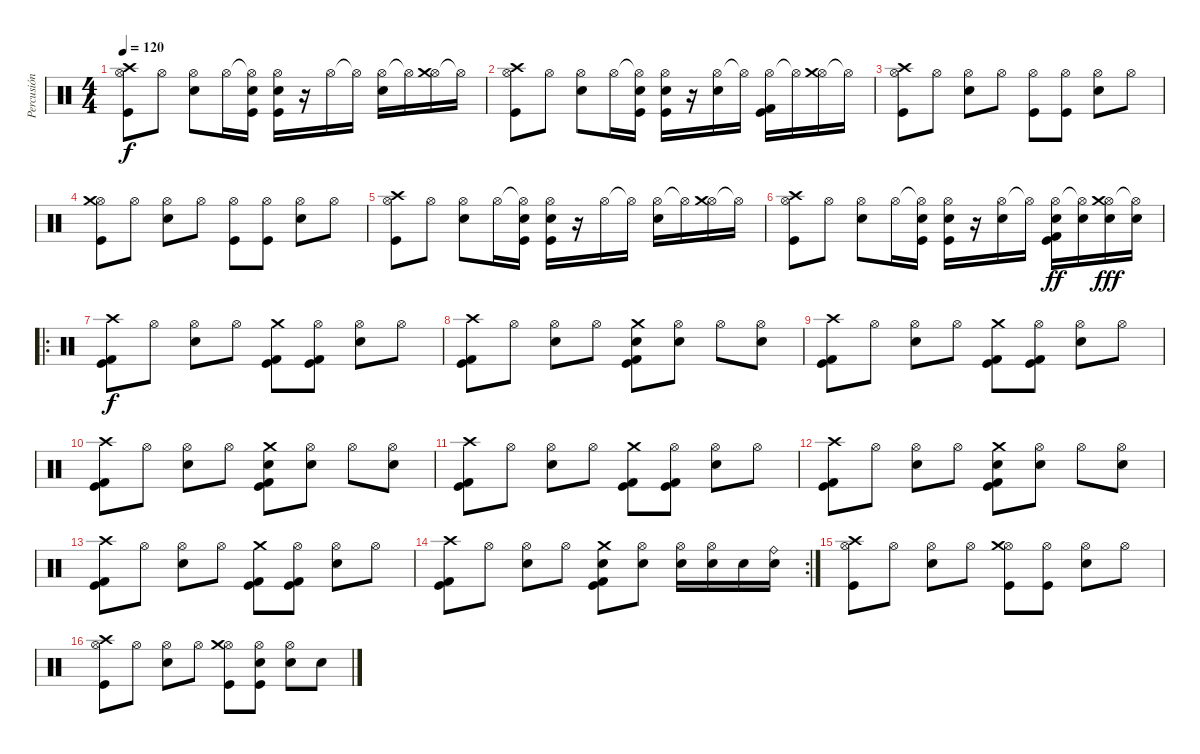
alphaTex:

\track ("Percusión" "Percusión") {instrument percussion}
\staff {score}
\articulation defaults
\ts (4 4)
\tempo 120
\clef neutral
\ks c
("Hi-Hat (open)" "Crash high (hit)" "Kick (hit)").8{dy f} "Hi-Hat (open)".8 ("Hi-Hat (open)" "Snare (hit) 2").8 "Hi-Hat (open)".16 ("Hi-Hat (open)"{t} "Snare (hit) 2" "Kick (hit)").16 ("Hi-Hat (open)" "Snare (hit) 2" "Kick (hit)").16 r.16 "Hi-Hat (open)".16 "Hi-Hat (open)"{t}.16 ("Hi-Hat (open)" "Snare (hit) 2").16 "Hi-Hat (open)"{t}.16 ("Hi-Hat (open)" "Crash medium (hit)").16 "Hi-Hat (open)"{t}.16 |
("Hi-Hat (open)" "Crash high (hit)" "Kick (hit)").8 "Hi-Hat (open)".8 ("Hi-Hat (open)" "Snare (hit) 2").8 "Hi-Hat (open)".16 ("Hi-Hat (open)"{t} "Snare (hit) 2" "Kick (hit)").16 ("Hi-Hat (open)" "Snare (hit) 2" "Kick (hit)").16 r.16 ("Hi-Hat (open)" "Snare (hit) 2").16 "Hi-Hat (open)"{t}.16 ("Hi-Hat (open)" "Kick (hit)" "Kick (hit) 2").16 "Hi-Hat (open)"{t}.16 ("Hi-Hat (open)" "Crash medium (hit)").16 "Hi-Hat (open)"{t}.16 |
("Hi-Hat (open)" "Crash high (hit)" "Kick (hit)").8 "Hi-Hat (open)".8 ("Hi-Hat (open)" "Snare (hit) 2").8 "Hi-Hat (open)".8 ("Hi-Hat (open)" "Kick (hit)").8 ("Hi-Hat (open)" "Kick (hit)").8 ("Hi-Hat (open)" "Snare (hit) 2").8 "Hi-Hat (open)".8 |
("Hi-Hat (open)" "Crash medium (hit)" "Kick (hit)").8 "Hi-Hat (open)".8 ("Hi-Hat (open)" "Snare (hit) 2").8 "Hi-Hat (open)".8 ("Hi-Hat (open)" "Kick (hit)").8 ("Hi-Hat (open)" "Kick (hit)").8 ("Hi-Hat (open)" "Snare (hit) 2").8 "Hi-Hat (open)".8 |
("Hi-Hat (open)" "Crash high (hit)" "Kick (hit)").8 "Hi-Hat (open)".8 ("Hi-Hat (open)" "Snare (hit) 2").8 "Hi-Hat (open)".16 ("Hi-Hat (open)"{t} "Snare (hit) 2" "Kick (hit)").16 ("Hi-Hat (open)" "Snare (hit) 2" "Kick (hit)").16 r.16 "Hi-Hat (open)".16 "Hi-Hat (open)"{t}.16 ("Hi-Hat (open)" "Snare (hit) 2").16 "Hi-Hat (open)"{t}.16 ("Hi-Hat (open)" "Crash medium (hit)").16 "Hi-Hat (open)"{t}.16 |
("Hi-Hat (open)" "Crash high (hit)" "Kick (hit)").8 "Hi-Hat (open)".8 ("Hi-Hat (open)" "Snare (hit) 2").8 "Hi-Hat (open)".16 ("Hi-Hat (open)"{t} "Snare (hit) 2" "Kick (hit)").16 ("Hi-Hat (open)" "Snare (hit) 2" "Kick (hit)").16 r.16 ("Hi-Hat (open)" "Snare (hit) 2").16 "Hi-Hat (open)"{t}.16 ("Hi-Hat (open)" "Snare (hit) 2" "Kick (hit)" "Kick (hit) 2").16{dy ff} ("Hi-Hat (open)"{t} "Snare (hit) 2").16 ("Hi-Hat (open)" "Crash medium (hit)" "Snare (hit) 2").16{dy fff} ("Hi-Hat (open)"{t} "Snare (hit) 2").16 |
\ro
("Crash high (hit)" "Kick (hit) 2" "Kick (hit)").8{dy f} "Hi-Hat (open)".8 ("Hi-Hat (open)" "Snare (hit) 2").8 "Hi-Hat (open)".8 ("Crash medium (hit)" "Kick (hit) 2" "Kick (hit)").8 ("Hi-Hat (open)" "Kick (hit) 2" "Kick (hit)").8 ("Hi-Hat (open)" "Snare (hit) 2").8 "Hi-Hat (open)".8 |
("Crash high (hit)" "Kick (hit) 2" "Kick (hit)").8 "Hi-Hat (open)".8 ("Hi-Hat (open)" "Snare (hit) 2").8 "Hi-Hat (open)".8 ("Crash medium (hit)" "Snare (hit) 2" "Kick (hit) 2" "Kick (hit)").8 ("Hi-Hat (open)" "Snare (hit) 2").8 "Hi-Hat (open)".8 ("Hi-Hat (open)" "Snare (hit) 2").8 |
("Crash high (hit)" "Kick (hit) 2" "Kick (hit)").8 "Hi-Hat (open)".8 ("Hi-Hat (open)" "Snare (hit) 2").8 "Hi-Hat (open)".8 ("Crash medium (hit)" "Kick (hit) 2" "Kick (hit)").8 ("Hi-Hat (open)" "Kick (hit) 2" "Kick (hit)").8 ("Hi-Hat (open)" "Snare (hit) 2").8 "Hi-Hat (open)".8 |
("Crash high (hit)" "Kick (hit) 2" "Kick (hit)").8 "Hi-Hat (open)".8 ("Hi-Hat (open)" "Snare (hit) 2").8 "Hi-Hat (open)".8 ("Crash medium (hit)" "Snare (hit) 2" "Kick (hit) 2" "Kick (hit)").8 ("Hi-Hat (open)" "Snare (hit) 2").8 "Hi-Hat (open)".8 ("Hi-Hat (open)" "Snare (hit) 2").8 |
("Crash high (hit)" "Kick (hit) 2" "Kick (hit)").8 "Hi-Hat (open)".8 ("Hi-Hat (open)" "Snare (hit) 2").8 "Hi-Hat (open)".8 ("Crash medium (hit)" "Kick (hit) 2" "Kick (hit)").8 ("Hi-Hat (open)" "Kick (hit) 2" "Kick (hit)").8 ("Hi-Hat (open)" "Snare (hit) 2").8 "Hi-Hat (open)".8 |
("Crash high (hit)" "Kick (hit) 2" "Kick (hit)").8 "Hi-Hat (open)".8 ("Hi-Hat (open)" "Snare (hit) 2").8 "Hi-Hat (open)".8 ("Crash medium (hit)" "Snare (hit) 2" "Kick (hit) 2" "Kick (hit)").8 ("Hi-Hat (open)" "Snare (hit) 2").8 "Hi-Hat (open)".8 ("Hi-Hat (open)" "Snare (hit) 2").8 |
("Crash high (hit)" "Kick (hit) 2" "Kick (hit)").8 "Hi-Hat (open)".8 ("Hi-Hat (open)" "Snare (hit) 2").8 "Hi-Hat (open)".8 ("Crash medium (hit)" "Kick (hit) 2" "Kick (hit)").8 ("Hi-Hat (open)" "Kick (hit) 2" "Kick (hit)").8 ("Hi-Hat (open)" "Snare (hit) 2").8 "Hi-Hat (open)".8 |
\rc 2
("Crash high (hit)" "Kick (hit) 2" "Kick (hit)").8 "Hi-Hat (open)".8 ("Hi-Hat (open)" "Snare (hit) 2").8 "Hi-Hat (open)".8 ("Crash medium (hit)" "Snare (hit) 2" "Kick (hit) 2" "Kick (hit)").8 ("Hi-Hat (open)" "Snare (hit) 2").8 ("Hi-Hat (open)" "Snare (hit) 2").16 ("Hi-Hat (open)" "Snare (hit) 2").16 "Snare (hit) 2".16 ("Ride (bell)" "Snare (hit) 2").16 |
("Hi-Hat (open)" "Crash high (hit)" "Kick (hit)").8 "Hi-Hat (open)".8 ("Hi-Hat (open)" "Snare (hit) 2").8 "Hi-Hat (open)".8 ("Hi-Hat (open)" "Crash medium (hit)" "Kick (hit)").8 ("Hi-Hat (open)" "Kick (hit)").8 ("Hi-Hat (open)" "Snare (hit) 2").8 "Hi-Hat (open)".8 |
("Hi-Hat (open)" "Crash high (hit)" "Kick (hit)").8 "Hi-Hat (open)".8 ("Hi-Hat (open)" "Snare (hit) 2").8 "Hi-Hat (open)".8 ("Hi-Hat (open)" "Crash medium (hit)" "Kick (hit)").8 ("Hi-Hat (open)" "Snare (hit) 2" "Kick (hit)").8 ("Hi-Hat (open)" "Snare (hit) 2").8 "Snare (hit) 2".8
